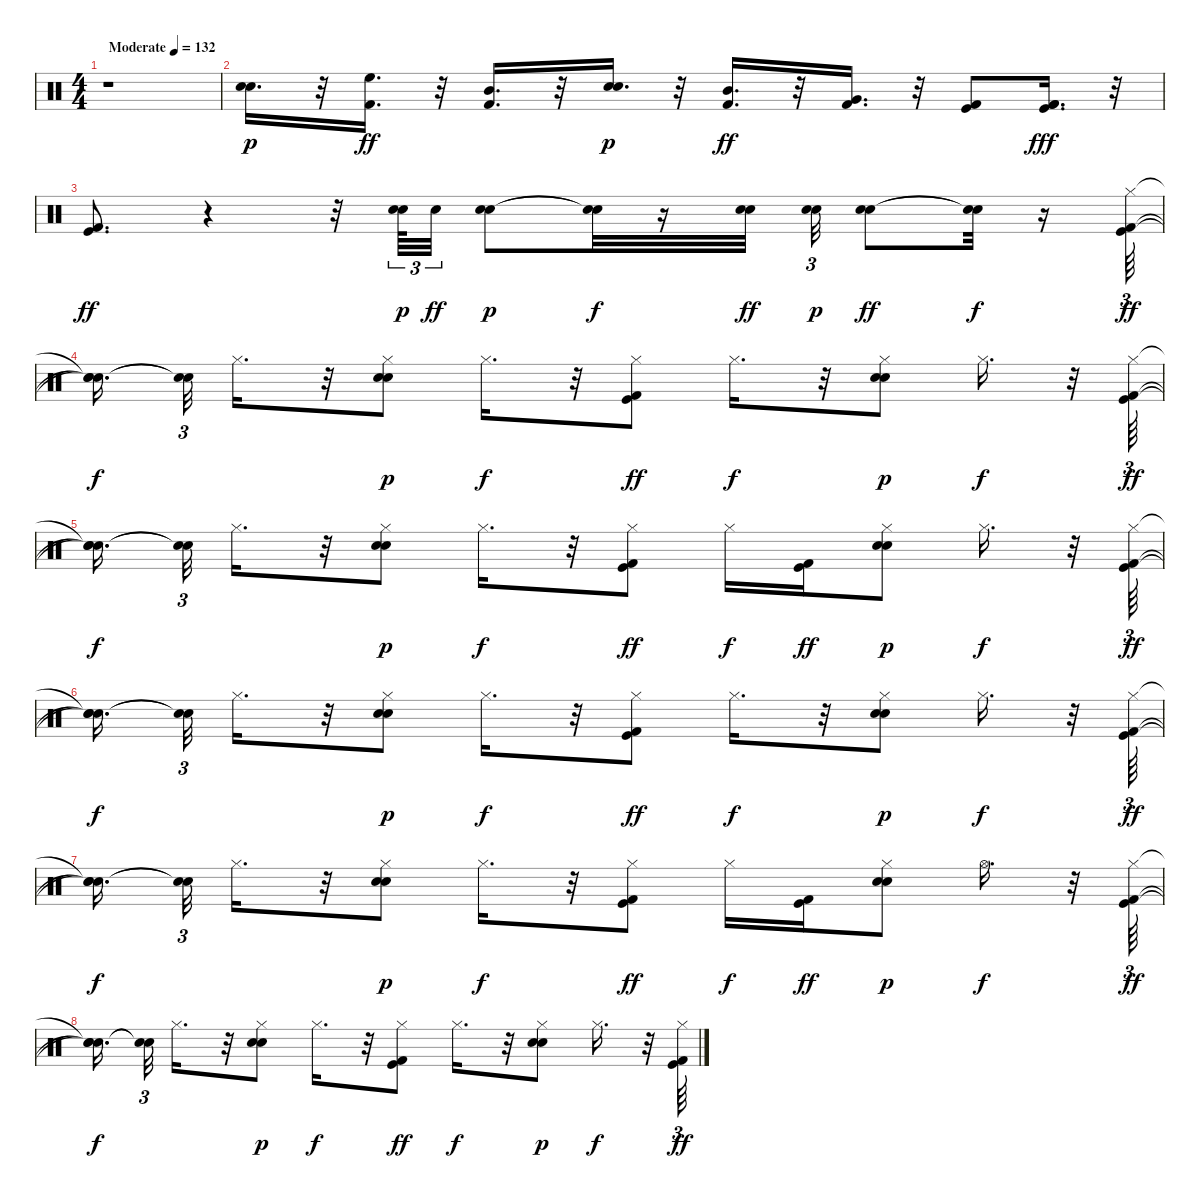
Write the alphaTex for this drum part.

\track "" {instrument percussion}
\staff {score}
\articulation defaults
\ts (4 4)
\tempo (132 "Moderate")
\clef neutral
\ks c
r.1{dy p} |
("Electric Snare (hit)" "Snare (hit) 2").16{d} r.32 ("High Floor Tom (hit)" "Kick (hit) 2").16{d dy ff} r.32 ("Mid Tom (hit)" "Kick (hit) 2").16{d} r.32 ("Electric Snare (hit)" "Snare (hit) 2").16{d dy p} r.32 ("Mid Tom (hit)" "Kick (hit) 2").16{d dy ff} r.32 ("Very Low Tom (hit)" "Kick (hit) 2").16{d} r.32 ("Kick (hit) 2" "Kick (hit)").8 ("Kick (hit) 2" "Kick (hit)" "Kick (hit) 2").16{d dy fff} r.32 |
("Kick (hit) 2" "Kick (hit)").8{d dy ff} r.4 r.32 ("Electric Snare (hit)" "Snare (hit) 2").64{tu (3 2) dy p} "Electric Snare (hit)".32{tu (3 2) dy ff} ("Electric Snare (hit)" "Snare (hit) 2").8{dy p} ("Snare (hit)"{t} "Snare (hit)"{t}).32{dy f} r.16 ("Snare (hit) 2" "Electric Snare (hit)").32{dy ff} ("Electric Snare (hit)" "Snare (hit) 2").32{tu (3 2) dy p} ("Snare (hit) 2" "Electric Snare (hit)").8{dy ff} ("Snare (hit)"{t} "Snare (hit)"{t}).32{dy f} r.16 ("Kick (hit) 2" "Kick (hit)" "Hi-Hat (closed)").64{tu (3 2) dy ff} |
("Snare (hit)"{t} "Snare (hit)"{t} "Snare (hit)"{t}).16{d dy f beam splitsecondary} ("Snare (hit)"{t} "Snare (hit)"{t}).32{tu (3 2)} "Hi-Hat (closed)".16{d} r.32 ("Electric Snare (hit)" "Snare (hit) 2" "Hi-Hat (closed)").8{dy p} "Hi-Hat (closed)".16{d dy f} r.32 ("Kick (hit) 2" "Kick (hit)" "Hi-Hat (closed)").8{dy ff} "Hi-Hat (closed)".16{d dy f} r.32 ("Electric Snare (hit)" "Snare (hit) 2" "Hi-Hat (closed)").8{dy p} "Hi-Hat (closed)".16{d dy f} r.32 ("Kick (hit) 2" "Kick (hit)" "Hi-Hat (closed)").64{tu (3 2) dy ff} |
("Snare (hit)"{t} "Snare (hit)"{t} "Snare (hit)"{t}).16{d dy f beam splitsecondary} ("Snare (hit)"{t} "Snare (hit)"{t}).32{tu (3 2)} "Hi-Hat (closed)".16{d} r.32 ("Electric Snare (hit)" "Snare (hit) 2" "Hi-Hat (closed)").8{dy p} "Hi-Hat (closed)".16{d dy f} r.32 ("Kick (hit) 2" "Kick (hit)" "Hi-Hat (closed)").8{dy ff} "Hi-Hat (closed)".16{dy f} ("Kick (hit) 2" "Kick (hit)").16{dy ff} ("Electric Snare (hit)" "Snare (hit) 2" "Hi-Hat (closed)").8{dy p} "Hi-Hat (closed)".16{d dy f} r.32 ("Kick (hit) 2" "Kick (hit)" "Hi-Hat (closed)").64{tu (3 2) dy ff} |
("Snare (hit)"{t} "Snare (hit)"{t} "Snare (hit)"{t}).16{d dy f beam splitsecondary} ("Snare (hit)"{t} "Snare (hit)"{t}).32{tu (3 2)} "Hi-Hat (closed)".16{d} r.32 ("Electric Snare (hit)" "Snare (hit) 2" "Hi-Hat (closed)").8{dy p} "Hi-Hat (closed)".16{d dy f} r.32 ("Kick (hit) 2" "Kick (hit)" "Hi-Hat (closed)").8{dy ff} "Hi-Hat (closed)".16{d dy f} r.32 ("Electric Snare (hit)" "Snare (hit) 2" "Hi-Hat (closed)").8{dy p} "Hi-Hat (closed)".16{d dy f} r.32 ("Kick (hit) 2" "Kick (hit)" "Hi-Hat (closed)").64{tu (3 2) dy ff} |
("Snare (hit)"{t} "Snare (hit)"{t} "Snare (hit)"{t}).16{d dy f beam splitsecondary} ("Snare (hit)"{t} "Snare (hit)"{t}).32{tu (3 2)} "Hi-Hat (closed)".16{d} r.32 ("Electric Snare (hit)" "Snare (hit) 2" "Hi-Hat (closed)").8{dy p} "Hi-Hat (closed)".16{d dy f} r.32 ("Kick (hit) 2" "Kick (hit)" "Hi-Hat (closed)").8{dy ff} "Hi-Hat (closed)".16{dy f} ("Kick (hit) 2" "Kick (hit)").16{dy ff} ("Electric Snare (hit)" "Snare (hit) 2" "Hi-Hat (closed)").8{dy p} "Hi-Hat (open)".16{d dy f} r.32 ("Kick (hit) 2" "Kick (hit)" "Hi-Hat (closed)").64{tu (3 2) dy ff} |
("Snare (hit)"{t} "Snare (hit)"{t} "Snare (hit)"{t}).16{d dy f beam splitsecondary} ("Snare (hit)"{t} "Snare (hit)"{t}).32{tu (3 2)} "Hi-Hat (closed)".16{d} r.32 ("Electric Snare (hit)" "Snare (hit) 2" "Hi-Hat (closed)").8{dy p} "Hi-Hat (closed)".16{d dy f} r.32 ("Kick (hit) 2" "Kick (hit)" "Hi-Hat (closed)").8{dy ff} "Hi-Hat (closed)".16{d dy f} r.32 ("Electric Snare (hit)" "Snare (hit) 2" "Hi-Hat (closed)").8{dy p} "Hi-Hat (closed)".16{d dy f} r.32 ("Kick (hit) 2" "Kick (hit)" "Hi-Hat (closed)").64{tu (3 2) dy ff}
